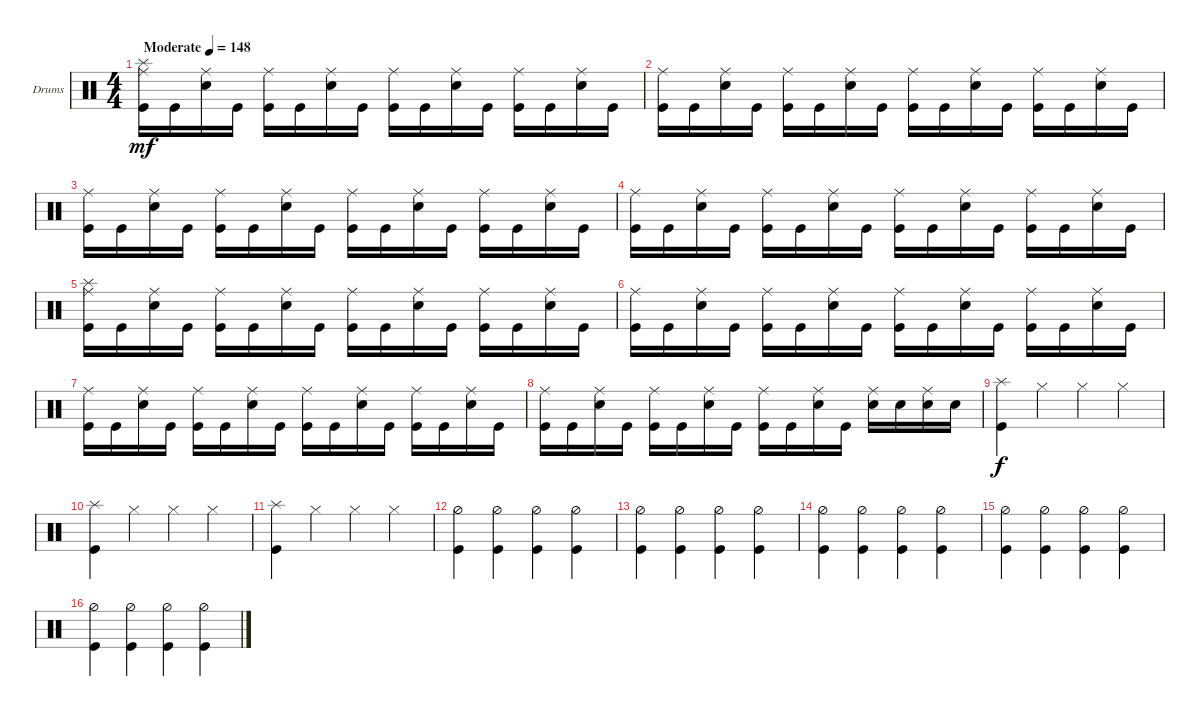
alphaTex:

\bracketExtendMode groupsimilarinstruments
\firstSystemTrackNameOrientation horizontal
\otherSystemsTrackNameOrientation horizontal
\track ("Drumkit" "Drums") {instrument percussion}
\staff {score}
\articulation defaults
\ts (4 4)
\tempo (148 "Moderate")
\clef neutral
\scale
0.474178
\ks c
("Kick (hit)" "Splash (hit)" "Ride (middle)").16{dy mf} "Kick (hit)".16 ("Snare (hit) 2" "Ride (middle)").16 "Kick (hit)".16 ("Kick (hit)" "Ride (middle)").16 "Kick (hit)".16 ("Snare (hit) 2" "Ride (middle)").16 "Kick (hit)".16 ("Kick (hit)" "Ride (middle)").16 "Kick (hit)".16 ("Snare (hit) 2" "Ride (middle)").16 "Kick (hit)".16 ("Kick (hit)" "Ride (middle)").16 "Kick (hit)".16 ("Snare (hit) 2" "Ride (middle)").16 "Kick (hit)".16 |
\scale
0.262911 ("Kick (hit)" "Ride (middle)").16 "Kick (hit)".16 ("Snare (hit) 2" "Ride (middle)").16 "Kick (hit)".16 ("Kick (hit)" "Ride (middle)").16 "Kick (hit)".16 ("Snare (hit) 2" "Ride (middle)").16 "Kick (hit)".16 ("Kick (hit)" "Ride (middle)").16 "Kick (hit)".16 ("Snare (hit) 2" "Ride (middle)").16 "Kick (hit)".16 ("Kick (hit)" "Ride (middle)").16 "Kick (hit)".16 ("Snare (hit) 2" "Ride (middle)").16 "Kick (hit)".16 |
\scale
0.262911 ("Kick (hit)" "Ride (middle)").16 "Kick (hit)".16 ("Snare (hit) 2" "Ride (middle)").16 "Kick (hit)".16 ("Kick (hit)" "Ride (middle)").16 "Kick (hit)".16 ("Snare (hit) 2" "Ride (middle)").16 "Kick (hit)".16 ("Kick (hit)" "Ride (middle)").16 "Kick (hit)".16 ("Snare (hit) 2" "Ride (middle)").16 "Kick (hit)".16 ("Kick (hit)" "Ride (middle)").16 "Kick (hit)".16 ("Snare (hit) 2" "Ride (middle)").16 "Kick (hit)".16 |
\scale
0.333333 ("Kick (hit)" "Ride (middle)").16 "Kick (hit)".16 ("Snare (hit) 2" "Ride (middle)").16 "Kick (hit)".16 ("Kick (hit)" "Ride (middle)").16 "Kick (hit)".16 ("Snare (hit) 2" "Ride (middle)").16 "Kick (hit)".16 ("Kick (hit)" "Ride (middle)").16 "Kick (hit)".16 ("Snare (hit) 2" "Ride (middle)").16 "Kick (hit)".16 ("Kick (hit)" "Ride (middle)").16 "Kick (hit)".16 ("Snare (hit) 2" "Ride (middle)").16 "Kick (hit)".16 |
\scale
0.333333 ("Kick (hit)" "Splash (hit)" "Ride (middle)").16 "Kick (hit)".16 ("Snare (hit) 2" "Ride (middle)").16 "Kick (hit)".16 ("Kick (hit)" "Ride (middle)").16 "Kick (hit)".16 ("Snare (hit) 2" "Ride (middle)").16 "Kick (hit)".16 ("Kick (hit)" "Ride (middle)").16 "Kick (hit)".16 ("Snare (hit) 2" "Ride (middle)").16 "Kick (hit)".16 ("Kick (hit)" "Ride (middle)").16 "Kick (hit)".16 ("Snare (hit) 2" "Ride (middle)").16 "Kick (hit)".16 |
\scale
0.333333 ("Kick (hit)" "Ride (middle)").16 "Kick (hit)".16 ("Snare (hit) 2" "Ride (middle)").16 "Kick (hit)".16 ("Kick (hit)" "Ride (middle)").16 "Kick (hit)".16 ("Snare (hit) 2" "Ride (middle)").16 "Kick (hit)".16 ("Kick (hit)" "Ride (middle)").16 "Kick (hit)".16 ("Snare (hit) 2" "Ride (middle)").16 "Kick (hit)".16 ("Kick (hit)" "Ride (middle)").16 "Kick (hit)".16 ("Snare (hit) 2" "Ride (middle)").16 "Kick (hit)".16 |
\scale
0.333333 ("Kick (hit)" "Ride (middle)").16 "Kick (hit)".16 ("Snare (hit) 2" "Ride (middle)").16 "Kick (hit)".16 ("Kick (hit)" "Ride (middle)").16 "Kick (hit)".16 ("Snare (hit) 2" "Ride (middle)").16 "Kick (hit)".16 ("Kick (hit)" "Ride (middle)").16 "Kick (hit)".16 ("Snare (hit) 2" "Ride (middle)").16 "Kick (hit)".16 ("Kick (hit)" "Ride (middle)").16 "Kick (hit)".16 ("Snare (hit) 2" "Ride (middle)").16 "Kick (hit)".16 |
\scale
0.333333 ("Kick (hit)" "Ride (middle)").16 "Kick (hit)".16 ("Snare (hit) 2" "Ride (middle)").16 "Kick (hit)".16 ("Kick (hit)" "Ride (middle)").16 "Kick (hit)".16 ("Snare (hit) 2" "Ride (middle)").16 "Kick (hit)".16 ("Kick (hit)" "Ride (middle)").16 "Kick (hit)".16 ("Snare (hit) 2" "Ride (middle)").16 "Kick (hit)".16 ("Ride (middle)" "Snare (hit) 2").16 "Snare (hit) 2".16 ("Snare (hit) 2" "Ride (middle)").16 "Snare (hit) 2".16 |
\scale
0.333333 ("Kick (hit)" "Splash (hit)").4{dy f} "Hi-Hat (closed)".4 "Hi-Hat (closed)".4 "Hi-Hat (closed)".4 |
\scale
0.333333 ("Splash (hit)" "Kick (hit)").4 "Hi-Hat (closed)".4 "Hi-Hat (closed)".4 "Hi-Hat (closed)".4 |
\scale
0.333333 ("Kick (hit)" "Splash (hit)").4 "Hi-Hat (closed)".4 "Hi-Hat (closed)".4 "Hi-Hat (closed)".4 |
\scale
0.333333 ("Kick (hit)" "Hi-Hat (half)").4 ("Kick (hit)" "Hi-Hat (half)").4 ("Kick (hit)" "Hi-Hat (half)").4 ("Kick (hit)" "Hi-Hat (half)").4 |
\scale
0.333333 ("Kick (hit)" "Hi-Hat (half)").4 ("Kick (hit)" "Hi-Hat (half)").4 ("Kick (hit)" "Hi-Hat (half)").4 ("Kick (hit)" "Hi-Hat (half)").4 |
\scale
0.333333 ("Kick (hit)" "Hi-Hat (half)").4 ("Kick (hit)" "Hi-Hat (half)").4 ("Kick (hit)" "Hi-Hat (half)").4 ("Kick (hit)" "Hi-Hat (half)").4 |
\scale
0.333333 ("Kick (hit)" "Hi-Hat (half)").4 ("Kick (hit)" "Hi-Hat (half)").4 ("Kick (hit)" "Hi-Hat (half)").4 ("Kick (hit)" "Hi-Hat (half)").4 |
\scale
0.333333 ("Kick (hit)" "Hi-Hat (half)").4 ("Kick (hit)" "Hi-Hat (half)").4 ("Kick (hit)" "Hi-Hat (half)").4 ("Kick (hit)" "Hi-Hat (half)").4
